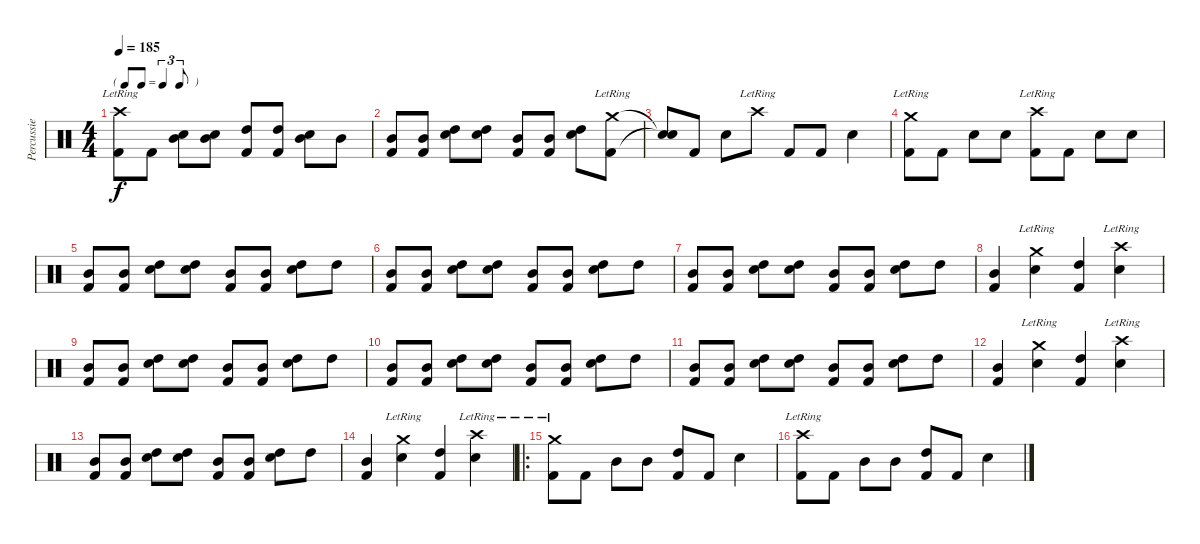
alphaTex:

\track ("Percussie" "Percussie") {instrument percussion}
\staff {score}
\articulation defaults
\ts (4 4)
\tf triplet8th
\tempo 185
\clef neutral
\ks c
("Crash high (hit)"{lr} "Kick (hit) 2").8{dy f} "Kick (hit) 2".8 ("Mid Tom (hit)" "Snare (hit) 2").8 ("Mid Tom (hit)" "Snare (hit) 2").8 ("High Tom (hit)" "Kick (hit) 2").8 ("High Tom (hit)" "Kick (hit) 2").8 ("Mid Tom (hit)" "Snare (hit) 2").8 "Mid Tom (hit)".8 |
("Mid Tom (hit)" "Kick (hit) 2").8 ("Mid Tom (hit)" "Kick (hit) 2").8 ("High Tom (hit)" "Snare (hit) 2").8 ("High Tom (hit)" "Snare (hit) 2").8 ("Mid Tom (hit)" "Kick (hit) 2").8 ("Mid Tom (hit)" "Kick (hit) 2").8 ("High Tom (hit)" "Snare (hit) 2").8 ("Crash medium (hit)"{lr} "Kick (hit) 2").8 |
("Snare (hit)"{t} "Snare (hit)"{t}).8 "Kick (hit) 2".8 "Snare (hit) 2".8 "Crash high (hit)"{lr}.8 "Kick (hit) 2".8 "Kick (hit) 2".8 "Snare (hit) 2".4 |
("Crash medium (hit)"{lr} "Kick (hit) 2").8 "Kick (hit) 2".8 "Snare (hit) 2".8 "Snare (hit) 2".8 ("Crash high (hit)"{lr} "Kick (hit) 2").8 "Kick (hit) 2".8 "Snare (hit) 2".8 "Snare (hit) 2".8 |
("Mid Tom (hit)" "Kick (hit) 2").8 ("Mid Tom (hit)" "Kick (hit) 2").8 ("High Tom (hit)" "Snare (hit) 2").8 ("High Tom (hit)" "Snare (hit) 2").8 ("Mid Tom (hit)" "Kick (hit) 2").8 ("Mid Tom (hit)" "Kick (hit) 2").8 ("High Tom (hit)" "Snare (hit) 2").8 "High Tom (hit)".8 |
("Mid Tom (hit)" "Kick (hit) 2").8 ("Mid Tom (hit)" "Kick (hit) 2").8 ("High Tom (hit)" "Snare (hit) 2").8 ("High Tom (hit)" "Snare (hit) 2").8 ("Mid Tom (hit)" "Kick (hit) 2").8 ("Mid Tom (hit)" "Kick (hit) 2").8 ("High Tom (hit)" "Snare (hit) 2").8 "High Tom (hit)".8 |
("Mid Tom (hit)" "Kick (hit) 2").8 ("Mid Tom (hit)" "Kick (hit) 2").8 ("High Tom (hit)" "Snare (hit) 2").8 ("High Tom (hit)" "Snare (hit) 2").8 ("Mid Tom (hit)" "Kick (hit) 2").8 ("Mid Tom (hit)" "Kick (hit) 2").8 ("High Tom (hit)" "Snare (hit) 2").8 "High Tom (hit)".8 |
("Mid Tom (hit)" "Kick (hit) 2").4 ("Crash medium (hit)"{lr} "Snare (hit) 2").4 ("High Tom (hit)" "Kick (hit) 2").4 ("Crash high (hit)"{lr} "Snare (hit) 2").4 |
("Mid Tom (hit)" "Kick (hit) 2").8 ("Mid Tom (hit)" "Kick (hit) 2").8 ("High Tom (hit)" "Snare (hit) 2").8 ("High Tom (hit)" "Snare (hit) 2").8 ("Mid Tom (hit)" "Kick (hit) 2").8 ("Mid Tom (hit)" "Kick (hit) 2").8 ("High Tom (hit)" "Snare (hit) 2").8 "High Tom (hit)".8 |
("Mid Tom (hit)" "Kick (hit) 2").8 ("Mid Tom (hit)" "Kick (hit) 2").8 ("High Tom (hit)" "Snare (hit) 2").8 ("High Tom (hit)" "Snare (hit) 2").8 ("Mid Tom (hit)" "Kick (hit) 2").8 ("Mid Tom (hit)" "Kick (hit) 2").8 ("High Tom (hit)" "Snare (hit) 2").8 "High Tom (hit)".8 |
("Mid Tom (hit)" "Kick (hit) 2").8 ("Mid Tom (hit)" "Kick (hit) 2").8 ("High Tom (hit)" "Snare (hit) 2").8 ("High Tom (hit)" "Snare (hit) 2").8 ("Mid Tom (hit)" "Kick (hit) 2").8 ("Mid Tom (hit)" "Kick (hit) 2").8 ("High Tom (hit)" "Snare (hit) 2").8 "High Tom (hit)".8 |
("Mid Tom (hit)" "Kick (hit) 2").4 ("Crash medium (hit)"{lr} "Snare (hit) 2").4 ("High Tom (hit)" "Kick (hit) 2").4 ("Crash high (hit)"{lr} "Snare (hit) 2").4 |
("Mid Tom (hit)" "Kick (hit) 2").8 ("Mid Tom (hit)" "Kick (hit) 2").8 ("High Tom (hit)" "Snare (hit) 2").8 ("High Tom (hit)" "Snare (hit) 2").8 ("Mid Tom (hit)" "Kick (hit) 2").8 ("Mid Tom (hit)" "Kick (hit) 2").8 ("High Tom (hit)" "Snare (hit) 2").8 "High Tom (hit)".8 |
("Mid Tom (hit)" "Kick (hit) 2").4 ("Crash medium (hit)"{lr} "Snare (hit) 2").4 ("High Tom (hit)" "Kick (hit) 2").4 ("Crash high (hit)"{lr} "Snare (hit) 2").4 |
\ro
("Crash medium (hit)"{lr} "Kick (hit) 2").8 "Kick (hit) 2".8 "Mid Tom (hit)".8 "Mid Tom (hit)".8 ("High Tom (hit)" "Kick (hit) 2").8 "Kick (hit) 2".8 "Snare (hit) 2".4 |
("Crash high (hit)"{lr} "Kick (hit) 2").8 "Kick (hit) 2".8 "Mid Tom (hit)".8 "Mid Tom (hit)".8 ("High Tom (hit)" "Kick (hit) 2").8 "Kick (hit) 2".8 "Snare (hit) 2".4
